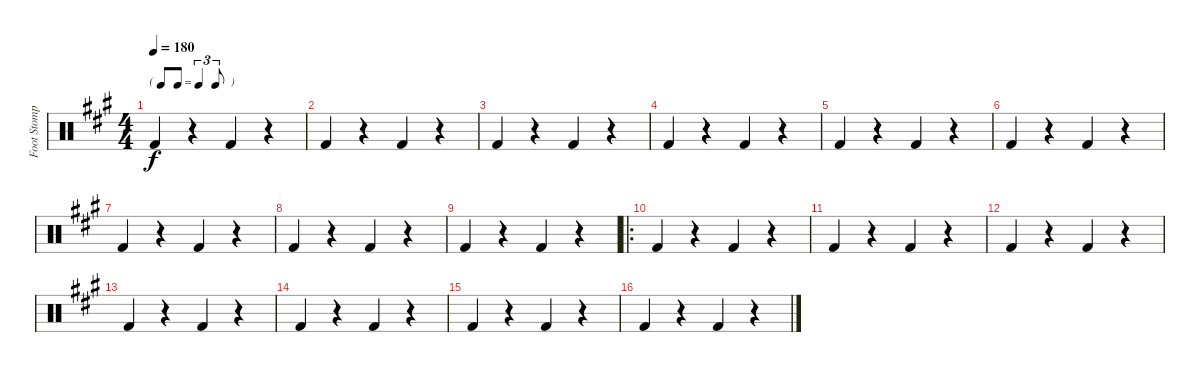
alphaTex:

\track ("Foot Stomp" "Foot Stomp") {instrument percussion}
\staff {score}
\articulation defaults
\ts (4 4)
\tf triplet8th
\tempo 180
\clef neutral
\ks a "Kick (hit) 2".4{dy f}
r.4 "Kick (hit) 2".4 r.4 |
"Kick (hit) 2".4 r.4 "Kick (hit) 2".4 r.4 |
"Kick (hit) 2".4 r.4 "Kick (hit) 2".4 r.4 |
"Kick (hit) 2".4 r.4 "Kick (hit) 2".4 r.4 |
"Kick (hit) 2".4 r.4 "Kick (hit) 2".4 r.4 |
"Kick (hit) 2".4 r.4 "Kick (hit) 2".4 r.4 |
"Kick (hit) 2".4 r.4 "Kick (hit) 2".4 r.4 |
"Kick (hit) 2".4 r.4 "Kick (hit) 2".4 r.4 |
"Kick (hit) 2".4 r.4 "Kick (hit) 2".4 r.4 |
\ro "Kick (hit) 2".4
r.4 "Kick (hit) 2".4 r.4 |
"Kick (hit) 2".4 r.4 "Kick (hit) 2".4 r.4 |
"Kick (hit) 2".4 r.4 "Kick (hit) 2".4 r.4 |
"Kick (hit) 2".4 r.4 "Kick (hit) 2".4 r.4 |
"Kick (hit) 2".4 r.4 "Kick (hit) 2".4 r.4 |
"Kick (hit) 2".4 r.4 "Kick (hit) 2".4 r.4 |
"Kick (hit) 2".4 r.4 "Kick (hit) 2".4 r.4
